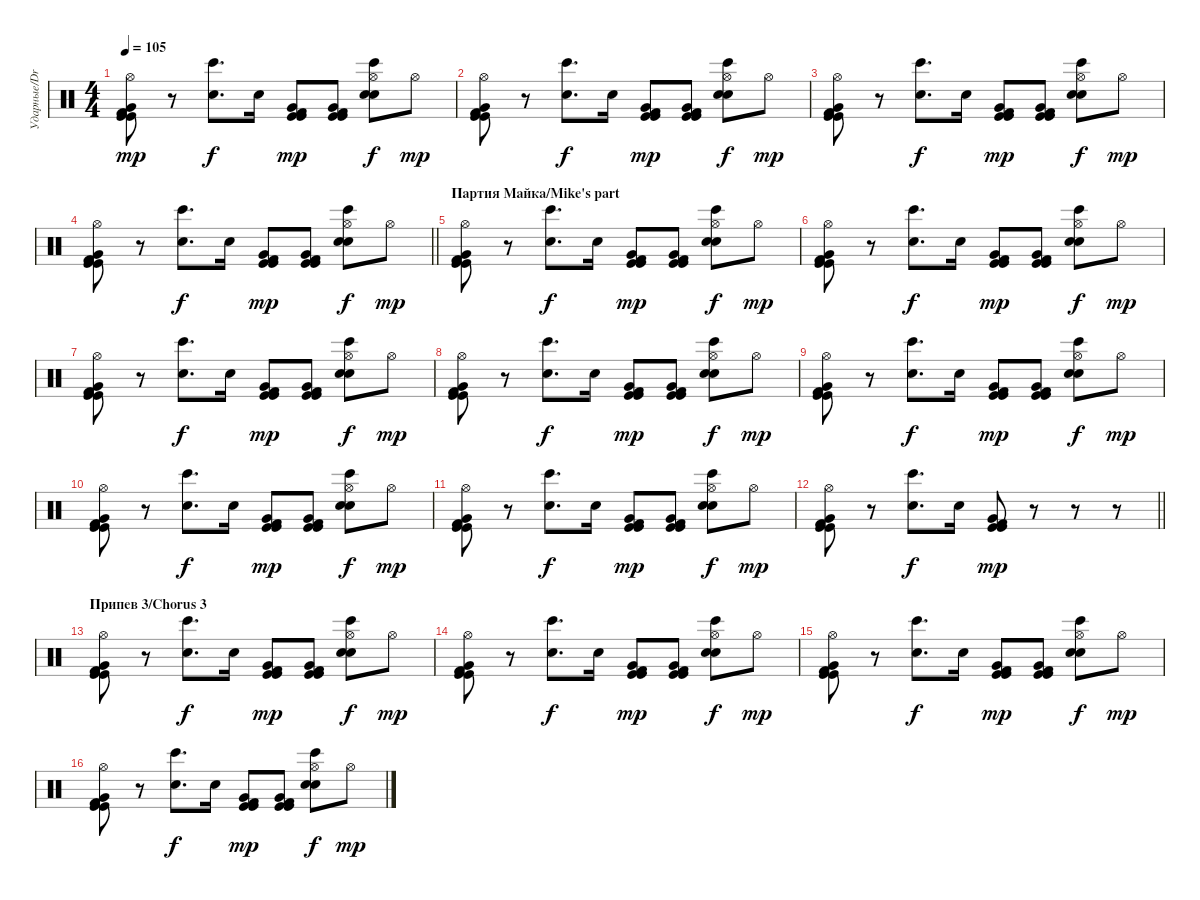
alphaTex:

\track ("Ударные/Drums" "Ударные/Dr") {instrument percussion}
\staff {score}
\articulation defaults
\ts (4 4)
\tempo 105
\clef neutral
\ks c
("Hi-Hat (open)" "Kick (hit)" "Kick (hit) 2" "Very Low Tom (hit)" "Kick (hit)").8{dy mp} r.8 ("Snare (hit) 2" "Bongo High (hit)").8{d dy f} "Snare (hit) 2".16 ("Kick (hit)" "Kick (hit) 2" "Very Low Tom (hit)" "Kick (hit)").8{dy mp} ("Kick (hit)" "Kick (hit) 2" "Very Low Tom (hit)" "Kick (hit)").8 ("Hi-Hat (open)" "Snare (hit) 2" "Bongo High (hit)" "Hand Clap (hit)").8{dy f} "Hi-Hat (open)".8{dy mp} |
("Hi-Hat (open)" "Kick (hit)" "Kick (hit) 2" "Very Low Tom (hit)" "Kick (hit)").8 r.8 ("Snare (hit) 2" "Bongo High (hit)").8{d dy f} "Snare (hit) 2".16 ("Kick (hit)" "Kick (hit) 2" "Very Low Tom (hit)" "Kick (hit)").8{dy mp} ("Kick (hit)" "Kick (hit) 2" "Very Low Tom (hit)" "Kick (hit)").8 ("Hi-Hat (open)" "Snare (hit) 2" "Bongo High (hit)" "Hand Clap (hit)").8{dy f} "Hi-Hat (open)".8{dy mp} |
("Hi-Hat (open)" "Kick (hit)" "Kick (hit) 2" "Very Low Tom (hit)" "Kick (hit)").8 r.8 ("Snare (hit) 2" "Bongo High (hit)").8{d dy f} "Snare (hit) 2".16 ("Kick (hit)" "Kick (hit) 2" "Very Low Tom (hit)" "Kick (hit)").8{dy mp} ("Kick (hit)" "Kick (hit) 2" "Very Low Tom (hit)" "Kick (hit)").8 ("Hi-Hat (open)" "Snare (hit) 2" "Bongo High (hit)" "Hand Clap (hit)").8{dy f} "Hi-Hat (open)".8{dy mp} |
\barLineRight lightlight
("Hi-Hat (open)" "Kick (hit)" "Kick (hit) 2" "Very Low Tom (hit)" "Kick (hit)").8 r.8 ("Snare (hit) 2" "Bongo High (hit)").8{d dy f} "Snare (hit) 2".16 ("Kick (hit)" "Kick (hit) 2" "Very Low Tom (hit)" "Kick (hit)").8{dy mp} ("Kick (hit)" "Kick (hit) 2" "Very Low Tom (hit)" "Kick (hit)").8 ("Hi-Hat (open)" "Snare (hit) 2" "Bongo High (hit)" "Hand Clap (hit)").8{dy f} "Hi-Hat (open)".8{dy mp} |
\section ("" "Партия Майка/Mike's part")
("Hi-Hat (open)" "Kick (hit)" "Kick (hit) 2" "Very Low Tom (hit)" "Kick (hit)").8 r.8 ("Snare (hit) 2" "Bongo High (hit)").8{d dy f} "Snare (hit) 2".16 ("Kick (hit)" "Kick (hit) 2" "Very Low Tom (hit)" "Kick (hit)").8{dy mp} ("Kick (hit)" "Kick (hit) 2" "Very Low Tom (hit)" "Kick (hit)").8 ("Hi-Hat (open)" "Snare (hit) 2" "Bongo High (hit)" "Hand Clap (hit)").8{dy f} "Hi-Hat (open)".8{dy mp} |
("Hi-Hat (open)" "Kick (hit)" "Kick (hit) 2" "Very Low Tom (hit)" "Kick (hit)").8 r.8 ("Snare (hit) 2" "Bongo High (hit)").8{d dy f} "Snare (hit) 2".16 ("Kick (hit)" "Kick (hit) 2" "Very Low Tom (hit)" "Kick (hit)").8{dy mp} ("Kick (hit)" "Kick (hit) 2" "Very Low Tom (hit)" "Kick (hit)").8 ("Hi-Hat (open)" "Snare (hit) 2" "Bongo High (hit)" "Hand Clap (hit)").8{dy f} "Hi-Hat (open)".8{dy mp} |
("Hi-Hat (open)" "Kick (hit)" "Kick (hit) 2" "Very Low Tom (hit)" "Kick (hit)").8 r.8 ("Snare (hit) 2" "Bongo High (hit)").8{d dy f} "Snare (hit) 2".16 ("Kick (hit)" "Kick (hit) 2" "Very Low Tom (hit)" "Kick (hit)").8{dy mp} ("Kick (hit)" "Kick (hit) 2" "Very Low Tom (hit)" "Kick (hit)").8 ("Hi-Hat (open)" "Snare (hit) 2" "Bongo High (hit)" "Hand Clap (hit)").8{dy f} "Hi-Hat (open)".8{dy mp} |
("Hi-Hat (open)" "Kick (hit)" "Kick (hit) 2" "Very Low Tom (hit)" "Kick (hit)").8 r.8 ("Snare (hit) 2" "Bongo High (hit)").8{d dy f} "Snare (hit) 2".16 ("Kick (hit)" "Kick (hit) 2" "Very Low Tom (hit)" "Kick (hit)").8{dy mp} ("Kick (hit)" "Kick (hit) 2" "Very Low Tom (hit)" "Kick (hit)").8 ("Hi-Hat (open)" "Snare (hit) 2" "Bongo High (hit)" "Hand Clap (hit)").8{dy f} "Hi-Hat (open)".8{dy mp} |
("Hi-Hat (open)" "Kick (hit)" "Kick (hit) 2" "Very Low Tom (hit)" "Kick (hit)").8 r.8 ("Snare (hit) 2" "Bongo High (hit)").8{d dy f} "Snare (hit) 2".16 ("Kick (hit)" "Kick (hit) 2" "Very Low Tom (hit)" "Kick (hit)").8{dy mp} ("Kick (hit)" "Kick (hit) 2" "Very Low Tom (hit)" "Kick (hit)").8 ("Hi-Hat (open)" "Snare (hit) 2" "Bongo High (hit)" "Hand Clap (hit)").8{dy f} "Hi-Hat (open)".8{dy mp} |
("Hi-Hat (open)" "Kick (hit)" "Kick (hit) 2" "Very Low Tom (hit)" "Kick (hit)").8 r.8 ("Snare (hit) 2" "Bongo High (hit)").8{d dy f} "Snare (hit) 2".16 ("Kick (hit)" "Kick (hit) 2" "Very Low Tom (hit)" "Kick (hit)").8{dy mp} ("Kick (hit)" "Kick (hit) 2" "Very Low Tom (hit)" "Kick (hit)").8 ("Hi-Hat (open)" "Snare (hit) 2" "Bongo High (hit)" "Hand Clap (hit)").8{dy f} "Hi-Hat (open)".8{dy mp} |
("Hi-Hat (open)" "Kick (hit)" "Kick (hit) 2" "Very Low Tom (hit)" "Kick (hit)").8 r.8 ("Snare (hit) 2" "Bongo High (hit)").8{d dy f} "Snare (hit) 2".16 ("Kick (hit)" "Kick (hit) 2" "Very Low Tom (hit)" "Kick (hit)").8{dy mp} ("Kick (hit)" "Kick (hit) 2" "Very Low Tom (hit)" "Kick (hit)").8 ("Hi-Hat (open)" "Snare (hit) 2" "Bongo High (hit)" "Hand Clap (hit)").8{dy f} "Hi-Hat (open)".8{dy mp} |
\barLineRight lightlight
("Hi-Hat (open)" "Kick (hit)" "Kick (hit) 2" "Very Low Tom (hit)" "Kick (hit)").8 r.8 ("Snare (hit) 2" "Bongo High (hit)").8{d dy f} "Snare (hit) 2".16 ("Kick (hit)" "Kick (hit) 2" "Very Low Tom (hit)" "Kick (hit)").8{dy mp} r.8 r.8 r.8 |
\section ("" "Припев 3/Chorus 3")
("Hi-Hat (open)" "Kick (hit)" "Kick (hit) 2" "Very Low Tom (hit)" "Kick (hit)").8 r.8 ("Snare (hit) 2" "Bongo High (hit)").8{d dy f} "Snare (hit) 2".16 ("Kick (hit)" "Kick (hit) 2" "Very Low Tom (hit)" "Kick (hit)").8{dy mp} ("Kick (hit)" "Kick (hit) 2" "Very Low Tom (hit)" "Kick (hit)").8 ("Hi-Hat (open)" "Snare (hit) 2" "Bongo High (hit)" "Hand Clap (hit)").8{dy f} "Hi-Hat (open)".8{dy mp} |
("Hi-Hat (open)" "Kick (hit)" "Kick (hit) 2" "Very Low Tom (hit)" "Kick (hit)").8 r.8 ("Snare (hit) 2" "Bongo High (hit)").8{d dy f} "Snare (hit) 2".16 ("Kick (hit)" "Kick (hit) 2" "Very Low Tom (hit)" "Kick (hit)").8{dy mp} ("Kick (hit)" "Kick (hit) 2" "Very Low Tom (hit)" "Kick (hit)").8 ("Hi-Hat (open)" "Snare (hit) 2" "Bongo High (hit)" "Hand Clap (hit)").8{dy f} "Hi-Hat (open)".8{dy mp} |
("Hi-Hat (open)" "Kick (hit)" "Kick (hit) 2" "Very Low Tom (hit)" "Kick (hit)").8 r.8 ("Snare (hit) 2" "Bongo High (hit)").8{d dy f} "Snare (hit) 2".16 ("Kick (hit)" "Kick (hit) 2" "Very Low Tom (hit)" "Kick (hit)").8{dy mp} ("Kick (hit)" "Kick (hit) 2" "Very Low Tom (hit)" "Kick (hit)").8 ("Hi-Hat (open)" "Snare (hit) 2" "Bongo High (hit)" "Hand Clap (hit)").8{dy f} "Hi-Hat (open)".8{dy mp} |
("Hi-Hat (open)" "Kick (hit)" "Kick (hit) 2" "Very Low Tom (hit)" "Kick (hit)").8 r.8 ("Snare (hit) 2" "Bongo High (hit)").8{d dy f} "Snare (hit) 2".16 ("Kick (hit)" "Kick (hit) 2" "Very Low Tom (hit)" "Kick (hit)").8{dy mp} ("Kick (hit)" "Kick (hit) 2" "Very Low Tom (hit)" "Kick (hit)").8 ("Hi-Hat (open)" "Snare (hit) 2" "Bongo High (hit)" "Hand Clap (hit)").8{dy f} "Hi-Hat (open)".8{dy mp}
